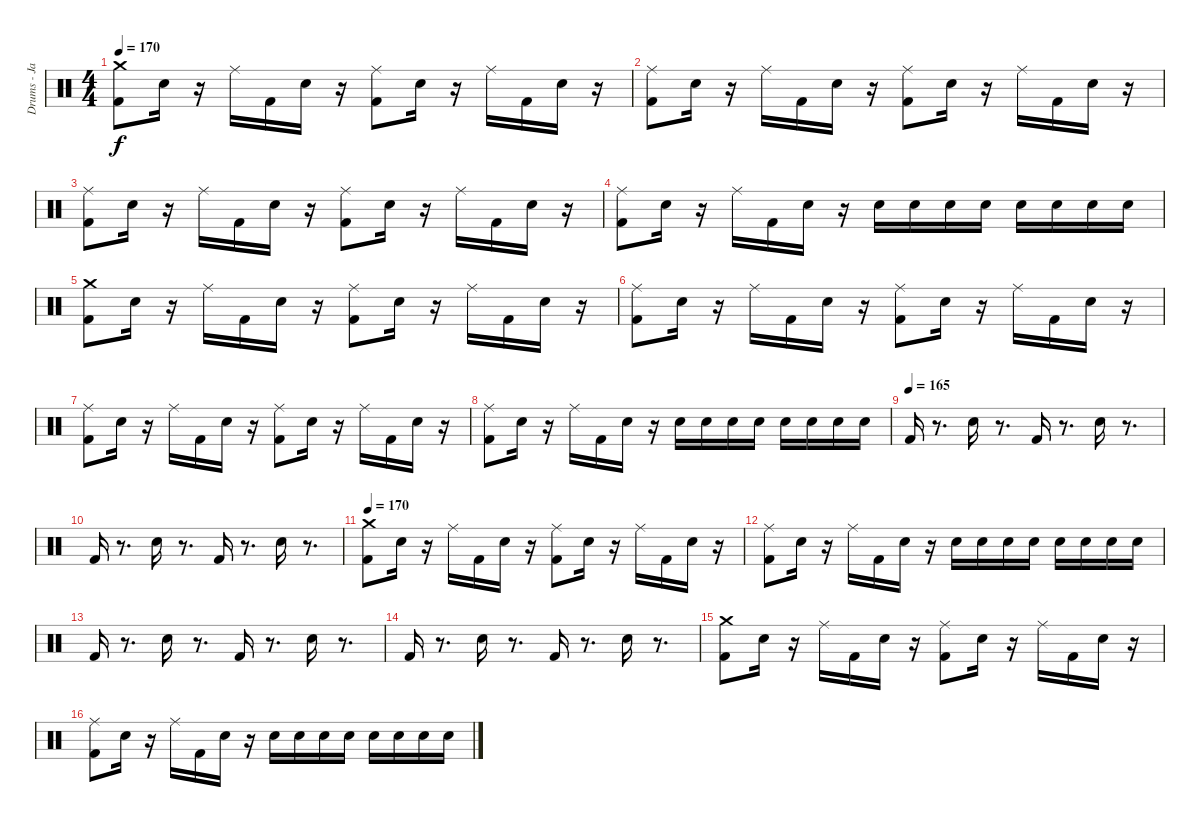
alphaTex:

\track ("Drums - Jasper Blazer" "Drums - Ja") {instrument percussion}
\staff {score}
\articulation defaults
\ts (4 4)
\tempo 170
\clef neutral
\ks c
("Kick (hit) 2" "Crash medium (hit)").8{dy f} "Electric Snare (hit)".16 r.16 "Ride (middle)".16 "Kick (hit) 2".16 "Electric Snare (hit)".16 r.16 ("Kick (hit) 2" "Ride (middle)").8 "Electric Snare (hit)".16 r.16 "Ride (middle)".16 "Kick (hit) 2".16 "Electric Snare (hit)".16 r.16 |
("Kick (hit) 2" "Ride (middle)").8 "Electric Snare (hit)".16 r.16 "Ride (middle)".16 "Kick (hit) 2".16 "Electric Snare (hit)".16 r.16 ("Kick (hit) 2" "Ride (middle)").8 "Electric Snare (hit)".16 r.16 "Ride (middle)".16 "Kick (hit) 2".16 "Electric Snare (hit)".16 r.16 |
("Kick (hit) 2" "Ride (middle)").8 "Electric Snare (hit)".16 r.16 "Ride (middle)".16 "Kick (hit) 2".16 "Electric Snare (hit)".16 r.16 ("Kick (hit) 2" "Ride (middle)").8 "Electric Snare (hit)".16 r.16 "Ride (middle)".16 "Kick (hit) 2".16 "Electric Snare (hit)".16 r.16 |
("Kick (hit) 2" "Ride (middle)").8 "Electric Snare (hit)".16 r.16 "Ride (middle)".16 "Kick (hit) 2".16 "Electric Snare (hit)".16 r.16 "Electric Snare (hit)".16 "Electric Snare (hit)".16 "Electric Snare (hit)".16 "Electric Snare (hit)".16 "Electric Snare (hit)".16 "Electric Snare (hit)".16 "Electric Snare (hit)".16 "Electric Snare (hit)".16 |
("Kick (hit) 2" "Crash medium (hit)").8 "Electric Snare (hit)".16 r.16 "Ride (middle)".16 "Kick (hit) 2".16 "Electric Snare (hit)".16 r.16 ("Kick (hit) 2" "Ride (middle)").8 "Electric Snare (hit)".16 r.16 "Ride (middle)".16 "Kick (hit) 2".16 "Electric Snare (hit)".16 r.16 |
("Kick (hit) 2" "Ride (middle)").8 "Electric Snare (hit)".16 r.16 "Ride (middle)".16 "Kick (hit) 2".16 "Electric Snare (hit)".16 r.16 ("Kick (hit) 2" "Ride (middle)").8 "Electric Snare (hit)".16 r.16 "Ride (middle)".16 "Kick (hit) 2".16 "Electric Snare (hit)".16 r.16 |
("Kick (hit) 2" "Ride (middle)").8 "Electric Snare (hit)".16 r.16 "Ride (middle)".16 "Kick (hit) 2".16 "Electric Snare (hit)".16 r.16 ("Kick (hit) 2" "Ride (middle)").8 "Electric Snare (hit)".16 r.16 "Ride (middle)".16 "Kick (hit) 2".16 "Electric Snare (hit)".16 r.16 |
("Kick (hit) 2" "Ride (middle)").8 "Electric Snare (hit)".16 r.16 "Ride (middle)".16 "Kick (hit) 2".16 "Electric Snare (hit)".16 r.16 "Electric Snare (hit)".16 "Electric Snare (hit)".16 "Electric Snare (hit)".16 "Electric Snare (hit)".16 "Electric Snare (hit)".16 "Electric Snare (hit)".16 "Electric Snare (hit)".16 "Electric Snare (hit)".16 |
\tempo (165)
"Kick (hit) 2".16 r.8{d} "Electric Snare (hit)".16 r.8{d} "Kick (hit) 2".16 r.8{d} "Electric Snare (hit)".16 r.8{d} |
"Kick (hit) 2".16 r.8{d} "Electric Snare (hit)".16 r.8{d} "Kick (hit) 2".16 r.8{d} "Electric Snare (hit)".16 r.8{d} |
\tempo 170
("Kick (hit) 2" "Crash medium (hit)").8 "Electric Snare (hit)".16 r.16 "Ride (middle)".16 "Kick (hit) 2".16 "Electric Snare (hit)".16 r.16 ("Kick (hit) 2" "Ride (middle)").8 "Electric Snare (hit)".16 r.16 "Ride (middle)".16 "Kick (hit) 2".16 "Electric Snare (hit)".16 r.16 |
("Kick (hit) 2" "Ride (middle)").8 "Electric Snare (hit)".16 r.16 "Ride (middle)".16 "Kick (hit) 2".16 "Electric Snare (hit)".16 r.16 "Electric Snare (hit)".16 "Electric Snare (hit)".16 "Electric Snare (hit)".16 "Electric Snare (hit)".16 "Electric Snare (hit)".16 "Electric Snare (hit)".16 "Electric Snare (hit)".16 "Electric Snare (hit)".16 |
"Kick (hit) 2".16 r.8{d} "Electric Snare (hit)".16 r.8{d} "Kick (hit) 2".16 r.8{d} "Electric Snare (hit)".16 r.8{d} |
"Kick (hit) 2".16 r.8{d} "Electric Snare (hit)".16 r.8{d} "Kick (hit) 2".16 r.8{d} "Electric Snare (hit)".16 r.8{d} |
("Kick (hit) 2" "Crash medium (hit)").8 "Electric Snare (hit)".16 r.16 "Ride (middle)".16 "Kick (hit) 2".16 "Electric Snare (hit)".16 r.16 ("Kick (hit) 2" "Ride (middle)").8 "Electric Snare (hit)".16 r.16 "Ride (middle)".16 "Kick (hit) 2".16 "Electric Snare (hit)".16 r.16 |
("Kick (hit) 2" "Ride (middle)").8 "Electric Snare (hit)".16 r.16 "Ride (middle)".16 "Kick (hit) 2".16 "Electric Snare (hit)".16 r.16 "Electric Snare (hit)".16 "Electric Snare (hit)".16 "Electric Snare (hit)".16 "Electric Snare (hit)".16 "Electric Snare (hit)".16 "Electric Snare (hit)".16 "Electric Snare (hit)".16 "Electric Snare (hit)".16
